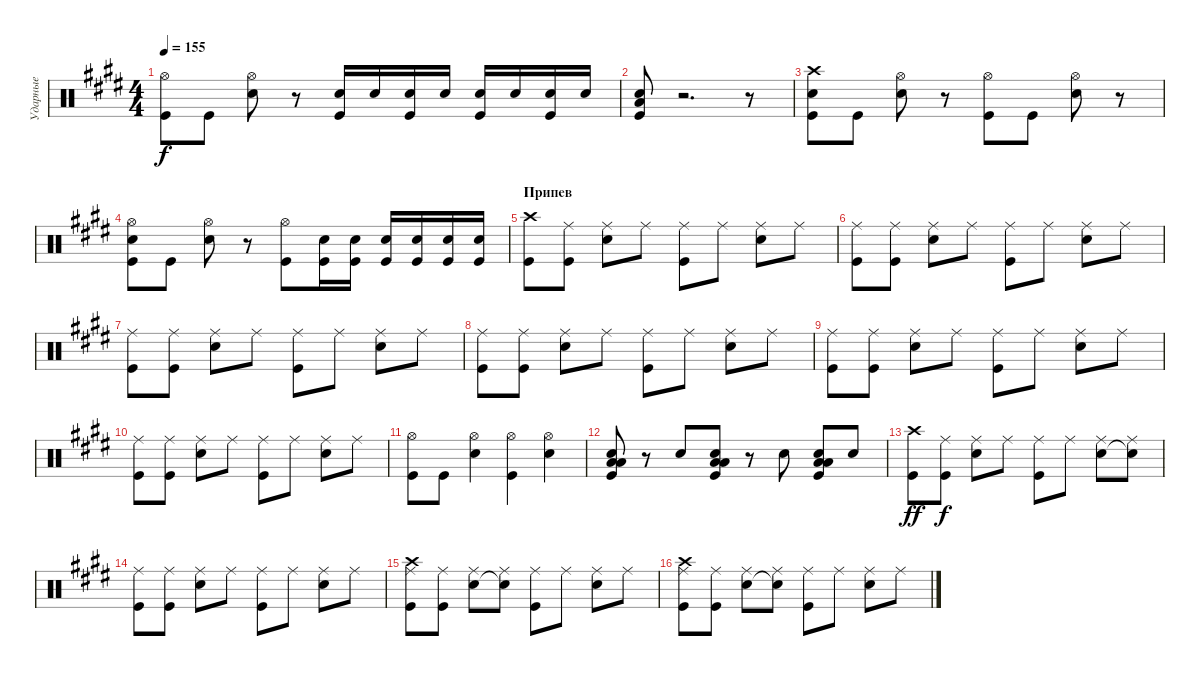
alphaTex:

\track ("Ударные" "Ударные") {instrument percussion}
\staff {score}
\articulation defaults
\ts (4 4)
\tempo 155
\clef neutral
\ks e
("Hi-Hat (open)" "Kick (hit)").8{dy f} "Kick (hit)".8 ("Hi-Hat (open)" "Snare (hit) 2").8 r.8 ("Snare (hit) 2" "Kick (hit)").16 "Snare (hit) 2".16 ("Snare (hit) 2" "Kick (hit)").16 "Snare (hit) 2".16 ("Snare (hit) 2" "Kick (hit)").16 "Snare (hit) 2".16 ("Snare (hit) 2" "Kick (hit)").16 "Snare (hit) 2".16 |
("Low Tom (hit)" "Snare (hit) 2" "Kick (hit)").8 r.2{d} r.8 |
("Crash high (hit)" "Snare (hit) 2" "Kick (hit)").8 "Kick (hit)".8 ("Hi-Hat (open)" "Snare (hit) 2").8 r.8 ("Hi-Hat (open)" "Kick (hit)").8 "Kick (hit)".8 ("Hi-Hat (open)" "Snare (hit) 2").8 r.8 |
("Hi-Hat (open)" "Snare (hit) 2" "Kick (hit)").8 "Kick (hit)".8 ("Hi-Hat (open)" "Snare (hit) 2").8 r.8 ("Hi-Hat (open)" "Kick (hit)").8 ("Snare (hit) 2" "Kick (hit)").16 ("Snare (hit) 2" "Kick (hit)").16 ("Snare (hit) 2" "Kick (hit)").16 ("Snare (hit) 2" "Kick (hit)").16 ("Snare (hit) 2" "Kick (hit)").16 ("Snare (hit) 2" "Kick (hit)").16 |
\section ("" "Припев")
("Crash high (hit)" "Kick (hit)").8 ("Ride (middle)" "Kick (hit)").8 ("Ride (middle)" "Snare (hit) 2").8 "Ride (middle)".8 ("Ride (middle)" "Kick (hit)").8 "Ride (middle)".8 ("Ride (middle)" "Snare (hit) 2").8 "Ride (middle)".8 |
("Ride (middle)" "Kick (hit)").8 ("Ride (middle)" "Kick (hit)").8 ("Ride (middle)" "Snare (hit) 2").8 "Ride (middle)".8 ("Ride (middle)" "Kick (hit)").8 "Ride (middle)".8 ("Ride (middle)" "Snare (hit) 2").8 "Ride (middle)".8 |
("Ride (middle)" "Kick (hit)").8 ("Ride (middle)" "Kick (hit)").8 ("Ride (middle)" "Snare (hit) 2").8 "Ride (middle)".8 ("Ride (middle)" "Kick (hit)").8 "Ride (middle)".8 ("Ride (middle)" "Snare (hit) 2").8 "Ride (middle)".8 |
("Ride (middle)" "Kick (hit)").8 ("Ride (middle)" "Kick (hit)").8 ("Ride (middle)" "Snare (hit) 2").8 "Ride (middle)".8 ("Ride (middle)" "Kick (hit)").8 "Ride (middle)".8 ("Ride (middle)" "Snare (hit) 2").8 "Ride (middle)".8 |
("Ride (middle)" "Kick (hit)").8 ("Ride (middle)" "Kick (hit)").8 ("Ride (middle)" "Snare (hit) 2").8 "Ride (middle)".8 ("Ride (middle)" "Kick (hit)").8 "Ride (middle)".8 ("Ride (middle)" "Snare (hit) 2").8 "Ride (middle)".8 |
("Ride (middle)" "Kick (hit)").8 ("Ride (middle)" "Kick (hit)").8 ("Ride (middle)" "Snare (hit) 2").8 "Ride (middle)".8 ("Ride (middle)" "Kick (hit)").8 "Ride (middle)".8 ("Ride (middle)" "Snare (hit) 2").8 "Ride (middle)".8 |
("Hi-Hat (open)" "Kick (hit)").8 "Kick (hit)".8 ("Hi-Hat (open)" "Snare (hit) 2").4 ("Hi-Hat (open)" "Kick (hit)").4 ("Hi-Hat (open)" "Snare (hit) 2").4 |
("Low Floor Tom (hit)" "Snare (hit) 2" "Low Tom (hit)" "Kick (hit)").8 r.8 "Snare (hit) 2".8 ("Low Floor Tom (hit)" "Snare (hit) 2" "Low Tom (hit)" "Kick (hit)").8 r.8 "Snare (hit) 2".8 ("Low Floor Tom (hit)" "Snare (hit) 2" "Low Tom (hit)" "Kick (hit)").8 "Snare (hit) 2".8 |
("Crash high (hit)" "Kick (hit)").8{dy ff} ("Ride (middle)" "Kick (hit)").8{dy f} ("Ride (middle)" "Snare (hit) 2").8 "Ride (middle)".8 ("Ride (middle)" "Kick (hit)").8 "Ride (middle)".8 ("Ride (middle)" "Snare (hit) 2").8 ("Ride (middle)" "Snare (hit)"{t}).8 |
("Ride (middle)" "Kick (hit)").8 ("Ride (middle)" "Kick (hit)").8 ("Ride (middle)" "Snare (hit) 2").8 "Ride (middle)".8 ("Ride (middle)" "Kick (hit)").8 "Ride (middle)".8 ("Ride (middle)" "Snare (hit) 2").8 "Ride (middle)".8 |
("Ride (middle)" "Crash high (hit)" "Kick (hit)").8 ("Ride (middle)" "Kick (hit)").8 ("Ride (middle)" "Snare (hit) 2").8 ("Ride (middle)" "Snare (hit)"{t}).8 ("Ride (middle)" "Kick (hit)").8 "Ride (middle)".8 ("Ride (middle)" "Snare (hit) 2").8 "Ride (middle)".8 |
("Ride (middle)" "Crash high (hit)" "Kick (hit)").8 ("Ride (middle)" "Kick (hit)").8 ("Ride (middle)" "Snare (hit) 2").8 ("Ride (middle)" "Snare (hit)"{t}).8 ("Ride (middle)" "Kick (hit)").8 "Ride (middle)".8 ("Ride (middle)" "Snare (hit) 2").8 "Ride (middle)".8
